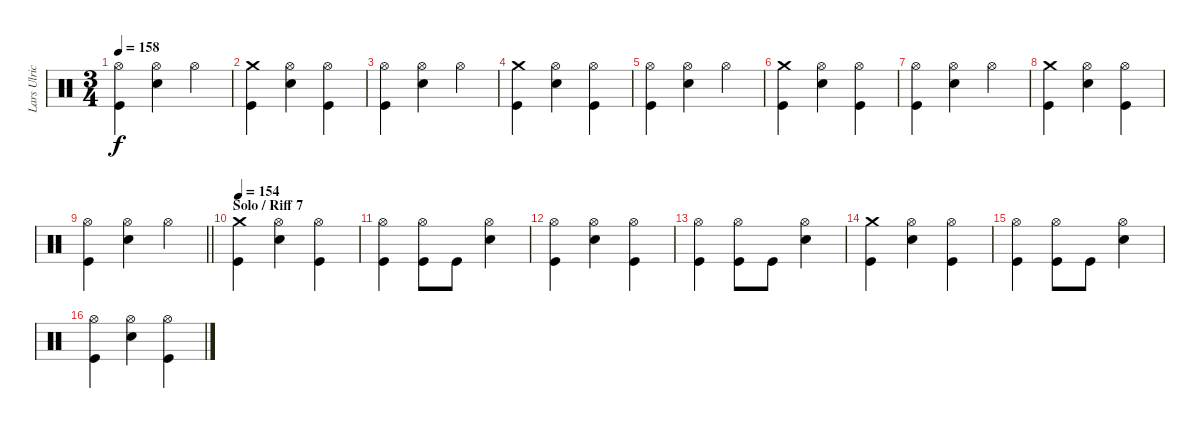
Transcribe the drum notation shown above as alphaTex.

\track ("Lars Ulrich" "Lars Ulric") {instrument percussion}
\staff {score}
\articulation defaults
\ts (3 4)
\tempo 158
\clef neutral
\ks c
("Hi-Hat (open)" "Kick (hit)").4{dy f} ("Hi-Hat (open)" "Snare (hit) 2").4 "Hi-Hat (open)".4 |
("Crash medium (hit)" "Kick (hit)").4 ("Hi-Hat (open)" "Snare (hit) 2").4 ("Hi-Hat (open)" "Kick (hit)").4 |
("Hi-Hat (open)" "Kick (hit)").4 ("Hi-Hat (open)" "Snare (hit) 2").4 "Hi-Hat (open)".4 |
("Crash medium (hit)" "Kick (hit)").4 ("Hi-Hat (open)" "Snare (hit) 2").4 ("Hi-Hat (open)" "Kick (hit)").4 |
("Hi-Hat (open)" "Kick (hit)").4 ("Hi-Hat (open)" "Snare (hit) 2").4 "Hi-Hat (open)".4 |
("Crash medium (hit)" "Kick (hit)").4 ("Hi-Hat (open)" "Snare (hit) 2").4 ("Hi-Hat (open)" "Kick (hit)").4 |
("Hi-Hat (open)" "Kick (hit)").4 ("Hi-Hat (open)" "Snare (hit) 2").4 "Hi-Hat (open)".4 |
("Crash medium (hit)" "Kick (hit)").4 ("Hi-Hat (open)" "Snare (hit) 2").4 ("Hi-Hat (open)" "Kick (hit)").4 |
\barLineRight lightlight
("Hi-Hat (open)" "Kick (hit)").4 ("Hi-Hat (open)" "Snare (hit) 2").4 "Hi-Hat (open)".4 |
\section ("" "Solo / Riff 7")
\tempo 154
("Crash medium (hit)" "Kick (hit)").4 ("Hi-Hat (open)" "Snare (hit) 2").4 ("Hi-Hat (open)" "Kick (hit)").4 |
("Hi-Hat (open)" "Kick (hit)").4 ("Hi-Hat (open)" "Kick (hit)").8 "Kick (hit)".8 ("Hi-Hat (open)" "Snare (hit) 2").4 |
("Hi-Hat (open)" "Kick (hit)").4 ("Hi-Hat (open)" "Snare (hit) 2").4 ("Hi-Hat (open)" "Kick (hit)").4 |
("Hi-Hat (open)" "Kick (hit)").4 ("Hi-Hat (open)" "Kick (hit)").8 "Kick (hit)".8 ("Hi-Hat (open)" "Snare (hit) 2").4 |
("Crash medium (hit)" "Kick (hit)").4 ("Hi-Hat (open)" "Snare (hit) 2").4 ("Hi-Hat (open)" "Kick (hit)").4 |
("Hi-Hat (open)" "Kick (hit)").4 ("Hi-Hat (open)" "Kick (hit)").8 "Kick (hit)".8 ("Hi-Hat (open)" "Snare (hit) 2").4 |
("Hi-Hat (open)" "Kick (hit)").4 ("Hi-Hat (open)" "Snare (hit) 2").4 ("Hi-Hat (open)" "Kick (hit)").4
